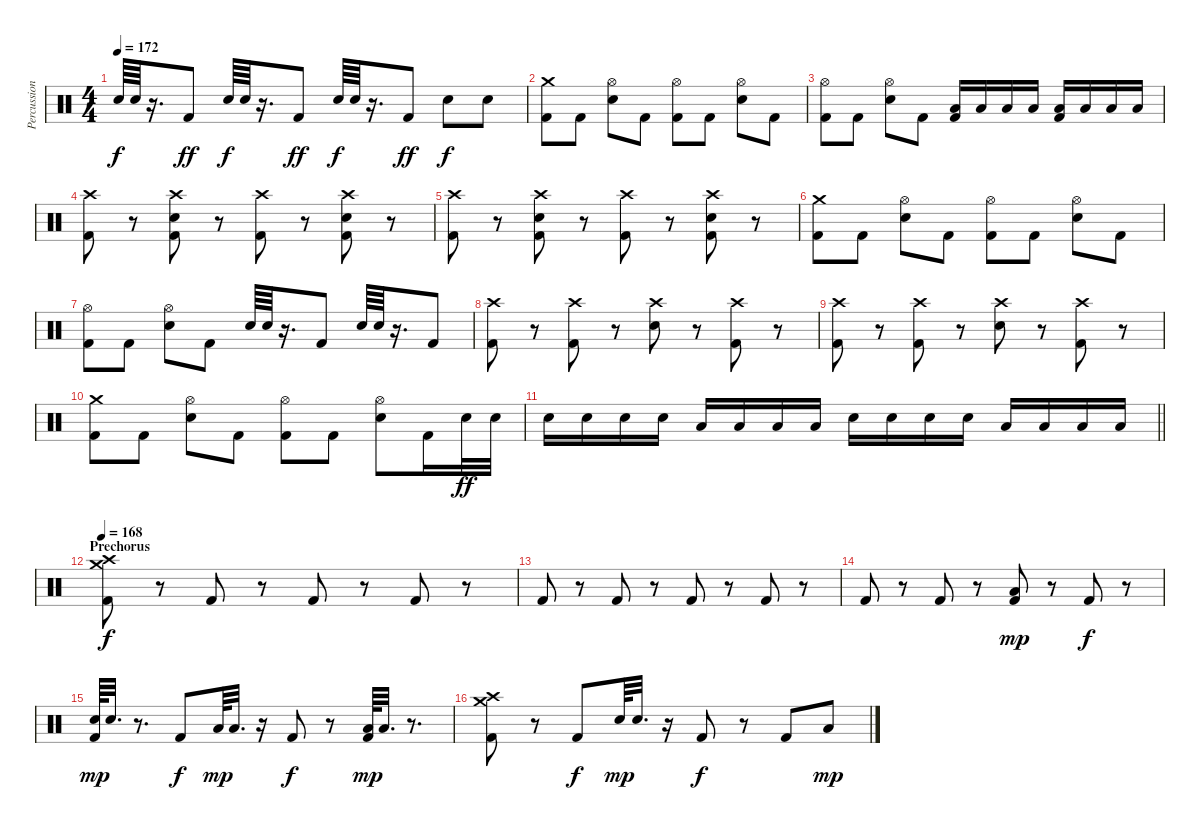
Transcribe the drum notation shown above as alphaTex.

\track ("Percussion" "Percussion") {instrument percussion}
\staff {score}
\articulation defaults
\ts (4 4)
\tempo 172
\clef neutral
\ks c "Snare (hit) 2".64{dy f} "Snare (hit) 2".64
r.16{d} "Kick (hit) 2".8{dy ff} "Snare (hit) 2".64{dy f} "Snare (hit) 2".64 r.16{d} "Kick (hit) 2".8{dy ff} "Snare (hit) 2".64{dy f} "Snare (hit) 2".64 r.16{d} "Kick (hit) 2".8{dy ff} "Snare (hit) 2".8{dy f} "Snare (hit) 2".8 |
("Crash medium (hit)" "Kick (hit) 2").8 "Kick (hit) 2".8 ("Hi-Hat (open)" "Snare (hit) 2").8 "Kick (hit) 2".8 ("Hi-Hat (open)" "Kick (hit) 2").8 "Kick (hit) 2".8 ("Hi-Hat (open)" "Snare (hit) 2").8 "Kick (hit) 2".8 |
("Hi-Hat (open)" "Kick (hit) 2").8 "Kick (hit) 2".8 ("Hi-Hat (open)" "Snare (hit) 2").8 "Kick (hit) 2".8 ("Low Tom (hit)" "Kick (hit) 2").16 "Low Tom (hit)".16 "Low Tom (hit)".16 "Low Tom (hit)".16 ("Low Floor Tom (hit)" "Kick (hit) 2").16 "Low Floor Tom (hit)".16 "Low Floor Tom (hit)".16 "Low Floor Tom (hit)".16 |
("Crash high (hit)" "Kick (hit) 2").8 r.8 ("Crash high (hit)" "Snare (hit) 2" "Kick (hit) 2").8 r.8 ("Crash high (hit)" "Kick (hit) 2").8 r.8 ("Crash high (hit)" "Snare (hit) 2" "Kick (hit) 2").8 r.8 |
("Crash high (hit)" "Kick (hit) 2").8 r.8 ("Crash high (hit)" "Snare (hit) 2" "Kick (hit) 2").8 r.8 ("Crash high (hit)" "Kick (hit) 2").8 r.8 ("Crash high (hit)" "Snare (hit) 2" "Kick (hit) 2").8 r.8 |
("Crash medium (hit)" "Kick (hit) 2").8 "Kick (hit) 2".8 ("Hi-Hat (open)" "Snare (hit) 2").8 "Kick (hit) 2".8 ("Hi-Hat (open)" "Kick (hit) 2").8 "Kick (hit) 2".8 ("Hi-Hat (open)" "Snare (hit) 2").8 "Kick (hit) 2".8 |
("Hi-Hat (open)" "Kick (hit) 2").8 "Kick (hit) 2".8 ("Hi-Hat (open)" "Snare (hit) 2").8 "Kick (hit) 2".8 "Snare (hit) 2".64 "Snare (hit) 2".64 r.16{d} "Kick (hit) 2".8 "Snare (hit) 2".64 "Snare (hit) 2".64 r.16{d} "Kick (hit) 2".8 |
("Crash high (hit)" "Kick (hit) 2").8 r.8 ("Crash high (hit)" "Kick (hit) 2").8 r.8 ("Crash high (hit)" "Snare (hit) 2").8 r.8 ("Crash high (hit)" "Kick (hit) 2").8 r.8 |
("Crash high (hit)" "Kick (hit) 2").8 r.8 ("Crash high (hit)" "Kick (hit) 2").8 r.8 ("Crash high (hit)" "Snare (hit) 2").8 r.8 ("Crash high (hit)" "Kick (hit) 2").8 r.8 |
("Crash medium (hit)" "Kick (hit) 2").8 "Kick (hit) 2".8 ("Hi-Hat (open)" "Snare (hit) 2").8 "Kick (hit) 2".8 ("Hi-Hat (open)" "Kick (hit) 2").8 "Kick (hit) 2".8 ("Hi-Hat (open)" "Snare (hit) 2").8 "Kick (hit) 2".16 "Snare (hit) 2".32{dy ff} "Snare (hit) 2".32 |
\barLineRight lightlight "Snare (hit) 2".16 "Snare (hit) 2".16 "Snare (hit) 2".16 "Snare (hit) 2".16 "Low Tom (hit)".16 "Low Tom (hit)".16 "Low Tom (hit)".16 "Low Tom (hit)".16 "Snare (hit) 2".16 "Snare (hit) 2".16 "Snare (hit) 2".16 "Snare (hit) 2".16 "Low Floor Tom (hit)".16 "Low Floor Tom (hit)".16 "Low Floor Tom (hit)".16 "Low Floor Tom (hit)".16
|
\section ("" "Prechorus")
\tempo 168
("Crash high (hit)" "Crash medium (hit)" "Kick (hit) 2").8{dy f} r.8 "Kick (hit) 2".8 r.8 "Kick (hit) 2".8 r.8 "Kick (hit) 2".8 r.8 |
"Kick (hit) 2".8 r.8 "Kick (hit) 2".8 r.8 "Kick (hit) 2".8 r.8 "Kick (hit) 2".8 r.8 |
"Kick (hit) 2".8 r.8 "Kick (hit) 2".8 r.8 ("Low Floor Tom (hit)" "Kick (hit) 2").8{dy mp} r.8 "Kick (hit) 2".8{dy f} r.8 |
("Snare (hit) 2" "Kick (hit) 2").64{dy mp} "Snare (hit) 2".32{d} r.8{d} "Kick (hit) 2".8{dy f} "Low Tom (hit)".64{dy mp} "Low Tom (hit)".32{d} r.16 "Kick (hit) 2".8{dy f} r.8 ("Low Floor Tom (hit)" "Kick (hit) 2").64{dy mp} "Low Floor Tom (hit)".32{d} r.8{d} |
("Crash high (hit)" "Crash medium (hit)" "Kick (hit) 2").8 r.8 "Kick (hit) 2".8{dy f} "Snare (hit) 2".64{dy mp} "Snare (hit) 2".32{d} r.16 "Kick (hit) 2".8{dy f} r.8 "Kick (hit) 2".8 "Low Floor Tom (hit)".8{dy mp}
